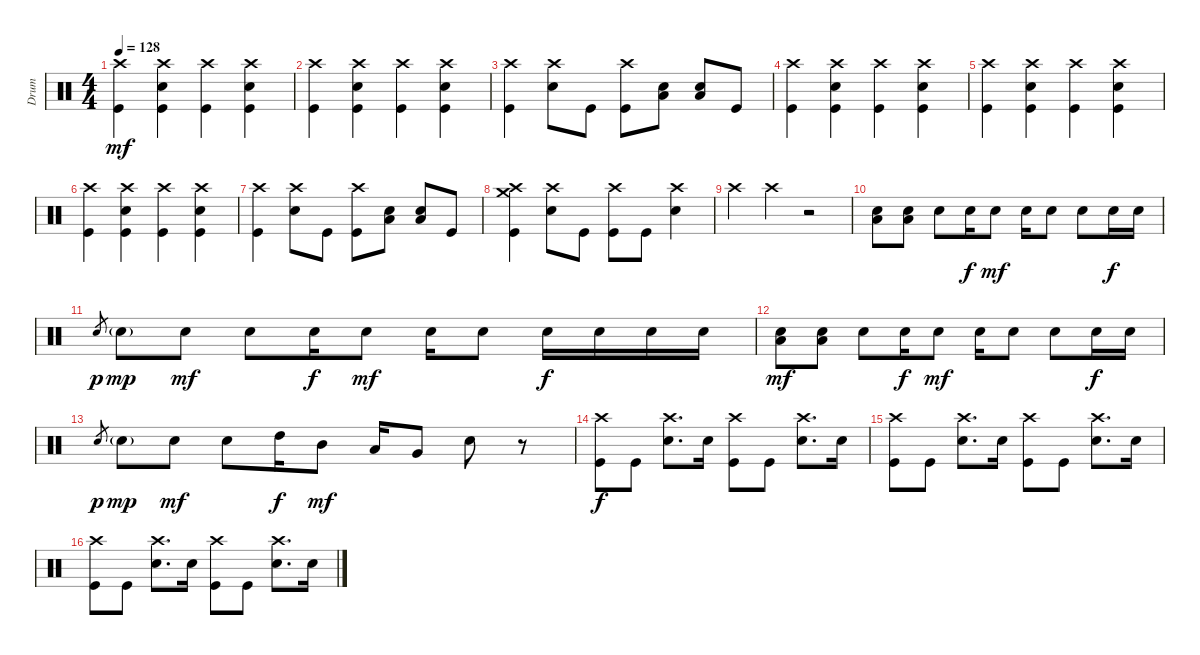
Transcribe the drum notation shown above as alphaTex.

\track ("Drum" "Drum") {instrument percussion}
\staff {score}
\articulation defaults
\ts (4 4)
\tempo 128
\clef neutral
\ks c
("Crash high (hit)" "Kick (hit)").4{dy mf} ("Crash high (hit)" "Kick (hit)" "Snare (hit) 2").4 ("Crash high (hit)" "Kick (hit)").4 ("Crash high (hit)" "Kick (hit)" "Snare (hit) 2").4 |
("Crash high (hit)" "Kick (hit)").4 ("Crash high (hit)" "Kick (hit)" "Snare (hit) 2").4 ("Crash high (hit)" "Kick (hit)").4 ("Crash high (hit)" "Kick (hit)" "Snare (hit) 2").4 |
("Crash high (hit)" "Kick (hit)").4 ("Crash high (hit)" "Snare (hit) 2").8 "Kick (hit)".8 ("Crash high (hit)" "Kick (hit)").8 ("Snare (hit) 2" "Low Floor Tom (hit)").8 ("Snare (hit) 2" "Low Floor Tom (hit)").8 "Kick (hit)".8 |
("Crash high (hit)" "Kick (hit)").4 ("Crash high (hit)" "Kick (hit)" "Snare (hit) 2").4 ("Crash high (hit)" "Kick (hit)").4 ("Crash high (hit)" "Kick (hit)" "Snare (hit) 2").4 |
("Crash high (hit)" "Kick (hit)").4 ("Crash high (hit)" "Kick (hit)" "Snare (hit) 2").4 ("Crash high (hit)" "Kick (hit)").4 ("Crash high (hit)" "Kick (hit)" "Snare (hit) 2").4 |
("Crash high (hit)" "Kick (hit)").4 ("Crash high (hit)" "Kick (hit)" "Snare (hit) 2").4 ("Crash high (hit)" "Kick (hit)").4 ("Crash high (hit)" "Kick (hit)" "Snare (hit) 2").4 |
("Crash high (hit)" "Kick (hit)").4 ("Crash high (hit)" "Snare (hit) 2").8 "Kick (hit)".8 ("Crash high (hit)" "Kick (hit)").8 ("Snare (hit) 2" "Low Floor Tom (hit)").8 ("Snare (hit) 2" "Low Floor Tom (hit)").8 "Kick (hit)".8 |
("Kick (hit)" "Crash high (hit)" "Crash medium (hit)").4 ("Crash high (hit)" "Snare (hit) 2").8 "Kick (hit)".8 ("Kick (hit)" "Crash high (hit)").8 "Kick (hit)".8 ("Crash high (hit)" "Snare (hit) 2").4 |
"Crash high (hit)".4 "Crash high (hit)".4 r.2 |
("Snare (hit) 2" "Low Floor Tom (hit)").8 ("Snare (hit) 2" "Low Floor Tom (hit)").8 "Snare (hit) 2".8 "Snare (hit) 2".16{dy f} "Snare (hit) 2".8{dy mf} "Snare (hit) 2".16 "Snare (hit) 2".8 "Snare (hit) 2".8 "Snare (hit) 2".16{dy f} "Snare (hit) 2".16 |
"Snare (hit) 2".8{gr dy p} "Snare (hit) 2"{g}.8{dy mp} "Snare (hit) 2".8{dy mf} "Snare (hit) 2".8 "Snare (hit) 2".16{dy f} "Snare (hit) 2".8{dy mf} "Snare (hit) 2".16 "Snare (hit) 2".8 "Snare (hit) 2".16{dy f} "Snare (hit) 2".16 "Snare (hit) 2".16 "Snare (hit) 2".16 |
("Snare (hit) 2" "Low Floor Tom (hit)").8{dy mf} ("Snare (hit) 2" "Low Floor Tom (hit)").8 "Snare (hit) 2".8 "Snare (hit) 2".16{dy f} "Snare (hit) 2".8{dy mf} "Snare (hit) 2".16 "Snare (hit) 2".8 "Snare (hit) 2".8 "Snare (hit) 2".16{dy f} "Snare (hit) 2".16 |
"Snare (hit) 2".8{gr dy p} "Snare (hit) 2"{g}.8{dy mp} "Snare (hit) 2".8{dy mf} "Snare (hit) 2".8 "High Tom (hit)".16{dy f} "Mid Tom (hit)".8{dy mf} "Low Tom (hit)".16 "Very Low Tom (hit)".8 "Snare (hit) 2".8 r.8 |
("Crash high (hit)" "Kick (hit)").8{dy f} "Kick (hit)".8 ("Crash high (hit)" "Snare (hit) 2").8{d} "Snare (hit) 2".16 ("Crash high (hit)" "Kick (hit)").8 "Kick (hit)".8 ("Crash high (hit)" "Snare (hit) 2").8{d} "Snare (hit) 2".16 |
("Crash high (hit)" "Kick (hit)").8 "Kick (hit)".8 ("Crash high (hit)" "Snare (hit) 2").8{d} "Snare (hit) 2".16 ("Crash high (hit)" "Kick (hit)").8 "Kick (hit)".8 ("Crash high (hit)" "Snare (hit) 2").8{d} "Snare (hit) 2".16 |
("Crash high (hit)" "Kick (hit)").8 "Kick (hit)".8 ("Crash high (hit)" "Snare (hit) 2").8{d} "Snare (hit) 2".16 ("Crash high (hit)" "Kick (hit)").8 "Kick (hit)".8 ("Crash high (hit)" "Snare (hit) 2").8{d} "Snare (hit) 2".16
